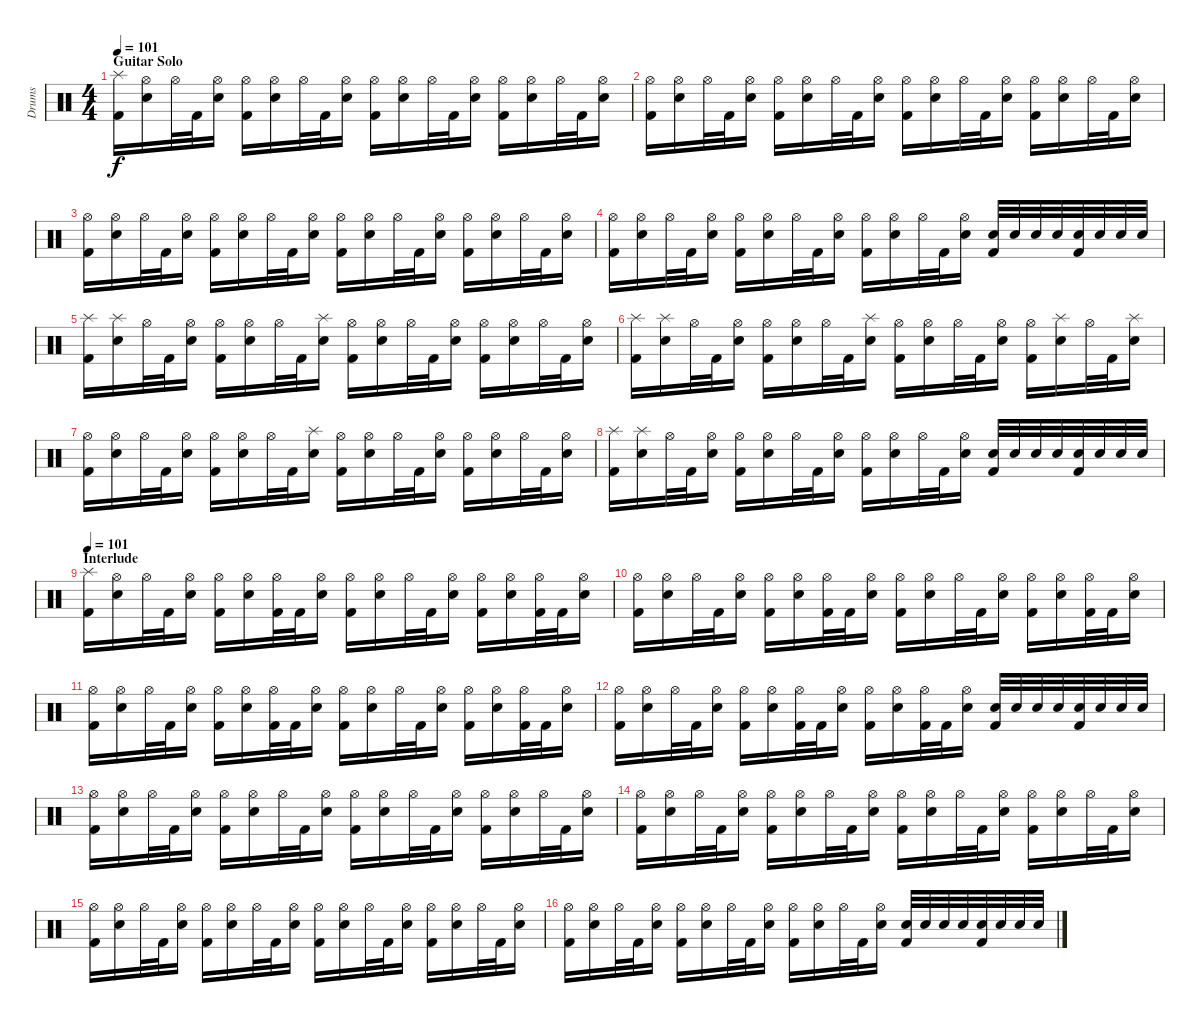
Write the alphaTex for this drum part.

\track ("Drums" "Drums") {instrument percussion}
\staff {score}
\articulation defaults
\ts (4 4)
\section ("" "Guitar Solo")
\tempo 101
\clef neutral
\ks c
("Splash (hit)" "Kick (hit) 2").16{dy f} ("Hi-Hat (open)" "Electric Snare (hit)").16 "Hi-Hat (open)".32 "Kick (hit) 2".32 ("Hi-Hat (open)" "Electric Snare (hit)").16 ("Hi-Hat (open)" "Kick (hit) 2").16 ("Hi-Hat (open)" "Electric Snare (hit)").16 "Hi-Hat (open)".32 "Kick (hit) 2".32 ("Hi-Hat (open)" "Electric Snare (hit)").16 ("Hi-Hat (open)" "Kick (hit) 2").16 ("Hi-Hat (open)" "Electric Snare (hit)").16 "Hi-Hat (open)".32 "Kick (hit) 2".32 ("Hi-Hat (open)" "Electric Snare (hit)").16 ("Hi-Hat (open)" "Kick (hit) 2").16 ("Hi-Hat (open)" "Electric Snare (hit)").16 "Hi-Hat (open)".32 "Kick (hit) 2".32 ("Hi-Hat (open)" "Electric Snare (hit)").16 |
("Hi-Hat (open)" "Kick (hit) 2").16 ("Hi-Hat (open)" "Electric Snare (hit)").16 "Hi-Hat (open)".32 "Kick (hit) 2".32 ("Hi-Hat (open)" "Electric Snare (hit)").16 ("Hi-Hat (open)" "Kick (hit) 2").16 ("Hi-Hat (open)" "Electric Snare (hit)").16 "Hi-Hat (open)".32 "Kick (hit) 2".32 ("Hi-Hat (open)" "Electric Snare (hit)").16 ("Hi-Hat (open)" "Kick (hit) 2").16 ("Hi-Hat (open)" "Electric Snare (hit)").16 "Hi-Hat (open)".32 "Kick (hit) 2".32 ("Hi-Hat (open)" "Electric Snare (hit)").16 ("Hi-Hat (open)" "Kick (hit) 2").16 ("Hi-Hat (open)" "Electric Snare (hit)").16 "Hi-Hat (open)".32 "Kick (hit) 2".32 ("Hi-Hat (open)" "Electric Snare (hit)").16 |
("Hi-Hat (open)" "Kick (hit) 2").16 ("Hi-Hat (open)" "Electric Snare (hit)").16 "Hi-Hat (open)".32 "Kick (hit) 2".32 ("Hi-Hat (open)" "Electric Snare (hit)").16 ("Hi-Hat (open)" "Kick (hit) 2").16 ("Hi-Hat (open)" "Electric Snare (hit)").16 "Hi-Hat (open)".32 "Kick (hit) 2".32 ("Hi-Hat (open)" "Electric Snare (hit)").16 ("Hi-Hat (open)" "Kick (hit) 2").16 ("Hi-Hat (open)" "Electric Snare (hit)").16 "Hi-Hat (open)".32 "Kick (hit) 2".32 ("Hi-Hat (open)" "Electric Snare (hit)").16 ("Hi-Hat (open)" "Kick (hit) 2").16 ("Hi-Hat (open)" "Electric Snare (hit)").16 "Hi-Hat (open)".32 "Kick (hit) 2".32 ("Hi-Hat (open)" "Electric Snare (hit)").16 |
("Hi-Hat (open)" "Kick (hit) 2").16 ("Hi-Hat (open)" "Electric Snare (hit)").16 "Hi-Hat (open)".32 "Kick (hit) 2".32 ("Hi-Hat (open)" "Electric Snare (hit)").16 ("Hi-Hat (open)" "Kick (hit) 2").16 ("Hi-Hat (open)" "Electric Snare (hit)").16 "Hi-Hat (open)".32 "Kick (hit) 2".32 ("Hi-Hat (open)" "Electric Snare (hit)").16 ("Hi-Hat (open)" "Kick (hit) 2").16 ("Hi-Hat (open)" "Electric Snare (hit)").16 "Hi-Hat (open)".32 "Kick (hit) 2".32 ("Hi-Hat (open)" "Electric Snare (hit)").16 ("Electric Snare (hit)" "Kick (hit) 2").32 "Electric Snare (hit)".32 "Electric Snare (hit)".32 "Electric Snare (hit)".32 ("Electric Snare (hit)" "Kick (hit) 2").32 "Electric Snare (hit)".32 "Electric Snare (hit)".32 "Electric Snare (hit)".32 |
("Splash (hit)" "Kick (hit) 2").16 ("Splash (hit)" "Electric Snare (hit)").16 "Hi-Hat (open)".32 "Kick (hit) 2".32 ("Hi-Hat (open)" "Electric Snare (hit)").16 ("Hi-Hat (open)" "Kick (hit) 2").16 ("Hi-Hat (open)" "Electric Snare (hit)").16 "Hi-Hat (open)".32 "Kick (hit) 2".32 ("Splash (hit)" "Electric Snare (hit)").16 ("Hi-Hat (open)" "Kick (hit) 2").16 ("Hi-Hat (open)" "Electric Snare (hit)").16 "Hi-Hat (open)".32 "Kick (hit) 2".32 ("Hi-Hat (open)" "Electric Snare (hit)").16 ("Hi-Hat (open)" "Kick (hit) 2").16 ("Hi-Hat (open)" "Electric Snare (hit)").16 "Hi-Hat (open)".32 "Kick (hit) 2".32 ("Hi-Hat (open)" "Electric Snare (hit)").16 |
("Splash (hit)" "Kick (hit) 2").16 ("Splash (hit)" "Electric Snare (hit)").16 "Hi-Hat (open)".32 "Kick (hit) 2".32 ("Hi-Hat (open)" "Electric Snare (hit)").16 ("Hi-Hat (open)" "Kick (hit) 2").16 ("Hi-Hat (open)" "Electric Snare (hit)").16 "Hi-Hat (open)".32 "Kick (hit) 2".32 ("Splash (hit)" "Electric Snare (hit)").16 ("Hi-Hat (open)" "Kick (hit) 2").16 ("Hi-Hat (open)" "Electric Snare (hit)").16 "Hi-Hat (open)".32 "Kick (hit) 2".32 ("Hi-Hat (open)" "Electric Snare (hit)").16 ("Hi-Hat (open)" "Kick (hit) 2").16 ("Splash (hit)" "Electric Snare (hit)").16 "Hi-Hat (open)".32 "Kick (hit) 2".32 ("Splash (hit)" "Electric Snare (hit)").16 |
("Hi-Hat (open)" "Kick (hit) 2").16 ("Hi-Hat (open)" "Electric Snare (hit)").16 "Hi-Hat (open)".32 "Kick (hit) 2".32 ("Hi-Hat (open)" "Electric Snare (hit)").16 ("Hi-Hat (open)" "Kick (hit) 2").16 ("Hi-Hat (open)" "Electric Snare (hit)").16 "Hi-Hat (open)".32 "Kick (hit) 2".32 ("Splash (hit)" "Electric Snare (hit)").16 ("Hi-Hat (open)" "Kick (hit) 2").16 ("Hi-Hat (open)" "Electric Snare (hit)").16 "Hi-Hat (open)".32 "Kick (hit) 2".32 ("Hi-Hat (open)" "Electric Snare (hit)").16 ("Hi-Hat (open)" "Kick (hit) 2").16 ("Hi-Hat (open)" "Electric Snare (hit)").16 "Hi-Hat (open)".32 "Kick (hit) 2".32 ("Hi-Hat (open)" "Electric Snare (hit)").16 |
("Splash (hit)" "Kick (hit) 2").16 ("Splash (hit)" "Electric Snare (hit)").16 "Hi-Hat (open)".32 "Kick (hit) 2".32 ("Hi-Hat (open)" "Electric Snare (hit)").16 ("Hi-Hat (open)" "Kick (hit) 2").16 ("Hi-Hat (open)" "Electric Snare (hit)").16 "Hi-Hat (open)".32 "Kick (hit) 2".32 ("Hi-Hat (open)" "Electric Snare (hit)").16 ("Hi-Hat (open)" "Kick (hit) 2").16 ("Hi-Hat (open)" "Electric Snare (hit)").16 "Hi-Hat (open)".32 "Kick (hit) 2".32 ("Hi-Hat (open)" "Electric Snare (hit)").16 ("Electric Snare (hit)" "Kick (hit) 2").32 "Electric Snare (hit)".32 "Electric Snare (hit)".32 "Electric Snare (hit)".32 ("Electric Snare (hit)" "Kick (hit) 2").32 "Electric Snare (hit)".32 "Electric Snare (hit)".32 "Electric Snare (hit)".32 |
\section ("" "Interlude")
\tempo 101
("Splash (hit)" "Kick (hit) 2").16 ("Hi-Hat (open)" "Electric Snare (hit)").16 "Hi-Hat (open)".32 "Kick (hit) 2".32 ("Hi-Hat (open)" "Electric Snare (hit)").16 ("Hi-Hat (open)" "Kick (hit) 2").16 ("Hi-Hat (open)" "Electric Snare (hit)").16 ("Hi-Hat (open)" "Kick (hit) 2").32 "Kick (hit) 2".32 ("Hi-Hat (open)" "Electric Snare (hit)").16 ("Hi-Hat (open)" "Kick (hit) 2").16 ("Hi-Hat (open)" "Electric Snare (hit)").16 "Hi-Hat (open)".32 "Kick (hit) 2".32 ("Hi-Hat (open)" "Electric Snare (hit)").16 ("Hi-Hat (open)" "Kick (hit) 2").16 ("Hi-Hat (open)" "Electric Snare (hit)").16 ("Hi-Hat (open)" "Kick (hit) 2").32 "Kick (hit) 2".32 ("Hi-Hat (open)" "Electric Snare (hit)").16 |
("Hi-Hat (open)" "Kick (hit) 2").16 ("Hi-Hat (open)" "Electric Snare (hit)").16 "Hi-Hat (open)".32 "Kick (hit) 2".32 ("Hi-Hat (open)" "Electric Snare (hit)").16 ("Hi-Hat (open)" "Kick (hit) 2").16 ("Hi-Hat (open)" "Electric Snare (hit)").16 ("Hi-Hat (open)" "Kick (hit) 2").32 "Kick (hit) 2".32 ("Hi-Hat (open)" "Electric Snare (hit)").16 ("Hi-Hat (open)" "Kick (hit) 2").16 ("Hi-Hat (open)" "Electric Snare (hit)").16 "Hi-Hat (open)".32 "Kick (hit) 2".32 ("Hi-Hat (open)" "Electric Snare (hit)").16 ("Hi-Hat (open)" "Kick (hit) 2").16 ("Hi-Hat (open)" "Electric Snare (hit)").16 ("Hi-Hat (open)" "Kick (hit) 2").32 "Kick (hit) 2".32 ("Hi-Hat (open)" "Electric Snare (hit)").16 |
("Hi-Hat (open)" "Kick (hit) 2").16 ("Hi-Hat (open)" "Electric Snare (hit)").16 "Hi-Hat (open)".32 "Kick (hit) 2".32 ("Hi-Hat (open)" "Electric Snare (hit)").16 ("Hi-Hat (open)" "Kick (hit) 2").16 ("Hi-Hat (open)" "Electric Snare (hit)").16 ("Hi-Hat (open)" "Kick (hit) 2").32 "Kick (hit) 2".32 ("Hi-Hat (open)" "Electric Snare (hit)").16 ("Hi-Hat (open)" "Kick (hit) 2").16 ("Hi-Hat (open)" "Electric Snare (hit)").16 "Hi-Hat (open)".32 "Kick (hit) 2".32 ("Hi-Hat (open)" "Electric Snare (hit)").16 ("Hi-Hat (open)" "Kick (hit) 2").16 ("Hi-Hat (open)" "Electric Snare (hit)").16 ("Hi-Hat (open)" "Kick (hit) 2").32 "Kick (hit) 2".32 ("Hi-Hat (open)" "Electric Snare (hit)").16 |
("Hi-Hat (open)" "Kick (hit) 2").16 ("Hi-Hat (open)" "Electric Snare (hit)").16 "Hi-Hat (open)".32 "Kick (hit) 2".32 ("Hi-Hat (open)" "Electric Snare (hit)").16 ("Hi-Hat (open)" "Kick (hit) 2").16 ("Hi-Hat (open)" "Electric Snare (hit)").16 ("Hi-Hat (open)" "Kick (hit) 2").32 "Kick (hit) 2".32 ("Hi-Hat (open)" "Electric Snare (hit)").16 ("Hi-Hat (open)" "Kick (hit) 2").16 ("Hi-Hat (open)" "Electric Snare (hit)").16 ("Hi-Hat (open)" "Kick (hit) 2").32 "Kick (hit) 2".32 ("Hi-Hat (open)" "Electric Snare (hit)").16 ("Electric Snare (hit)" "Kick (hit) 2").32 "Electric Snare (hit)".32 "Electric Snare (hit)".32 "Electric Snare (hit)".32 ("Electric Snare (hit)" "Kick (hit) 2").32 "Electric Snare (hit)".32 "Electric Snare (hit)".32 "Electric Snare (hit)".32 |
("Hi-Hat (open)" "Kick (hit) 2").16 ("Hi-Hat (open)" "Electric Snare (hit)").16 "Hi-Hat (open)".32 "Kick (hit) 2".32 ("Hi-Hat (open)" "Electric Snare (hit)").16 ("Hi-Hat (open)" "Kick (hit) 2").16 ("Hi-Hat (open)" "Electric Snare (hit)").16 "Hi-Hat (open)".32 "Kick (hit) 2".32 ("Hi-Hat (open)" "Electric Snare (hit)").16 ("Hi-Hat (open)" "Kick (hit) 2").16 ("Hi-Hat (open)" "Electric Snare (hit)").16 "Hi-Hat (open)".32 "Kick (hit) 2".32 ("Hi-Hat (open)" "Electric Snare (hit)").16 ("Hi-Hat (open)" "Kick (hit) 2").16 ("Hi-Hat (open)" "Electric Snare (hit)").16 "Hi-Hat (open)".32 "Kick (hit) 2".32 ("Hi-Hat (open)" "Electric Snare (hit)").16 |
("Hi-Hat (open)" "Kick (hit) 2").16 ("Hi-Hat (open)" "Electric Snare (hit)").16 "Hi-Hat (open)".32 "Kick (hit) 2".32 ("Hi-Hat (open)" "Electric Snare (hit)").16 ("Hi-Hat (open)" "Kick (hit) 2").16 ("Hi-Hat (open)" "Electric Snare (hit)").16 "Hi-Hat (open)".32 "Kick (hit) 2".32 ("Hi-Hat (open)" "Electric Snare (hit)").16 ("Hi-Hat (open)" "Kick (hit) 2").16 ("Hi-Hat (open)" "Electric Snare (hit)").16 "Hi-Hat (open)".32 "Kick (hit) 2".32 ("Hi-Hat (open)" "Electric Snare (hit)").16 ("Hi-Hat (open)" "Kick (hit) 2").16 ("Hi-Hat (open)" "Electric Snare (hit)").16 "Hi-Hat (open)".32 "Kick (hit) 2".32 ("Hi-Hat (open)" "Electric Snare (hit)").16 |
("Hi-Hat (open)" "Kick (hit) 2").16 ("Hi-Hat (open)" "Electric Snare (hit)").16 "Hi-Hat (open)".32 "Kick (hit) 2".32 ("Hi-Hat (open)" "Electric Snare (hit)").16 ("Hi-Hat (open)" "Kick (hit) 2").16 ("Hi-Hat (open)" "Electric Snare (hit)").16 "Hi-Hat (open)".32 "Kick (hit) 2".32 ("Hi-Hat (open)" "Electric Snare (hit)").16 ("Hi-Hat (open)" "Kick (hit) 2").16 ("Hi-Hat (open)" "Electric Snare (hit)").16 "Hi-Hat (open)".32 "Kick (hit) 2".32 ("Hi-Hat (open)" "Electric Snare (hit)").16 ("Hi-Hat (open)" "Kick (hit) 2").16 ("Hi-Hat (open)" "Electric Snare (hit)").16 "Hi-Hat (open)".32 "Kick (hit) 2".32 ("Hi-Hat (open)" "Electric Snare (hit)").16 |
("Hi-Hat (open)" "Kick (hit) 2").16 ("Hi-Hat (open)" "Electric Snare (hit)").16 "Hi-Hat (open)".32 "Kick (hit) 2".32 ("Hi-Hat (open)" "Electric Snare (hit)").16 ("Hi-Hat (open)" "Kick (hit) 2").16 ("Hi-Hat (open)" "Electric Snare (hit)").16 "Hi-Hat (open)".32 "Kick (hit) 2".32 ("Hi-Hat (open)" "Electric Snare (hit)").16 ("Hi-Hat (open)" "Kick (hit) 2").16 ("Hi-Hat (open)" "Electric Snare (hit)").16 "Hi-Hat (open)".32 "Kick (hit) 2".32 ("Hi-Hat (open)" "Electric Snare (hit)").16 ("Electric Snare (hit)" "Kick (hit) 2").32 "Electric Snare (hit)".32 "Electric Snare (hit)".32 "Electric Snare (hit)".32 ("Electric Snare (hit)" "Kick (hit) 2").32 "Electric Snare (hit)".32 "Electric Snare (hit)".32 "Electric Snare (hit)".32
